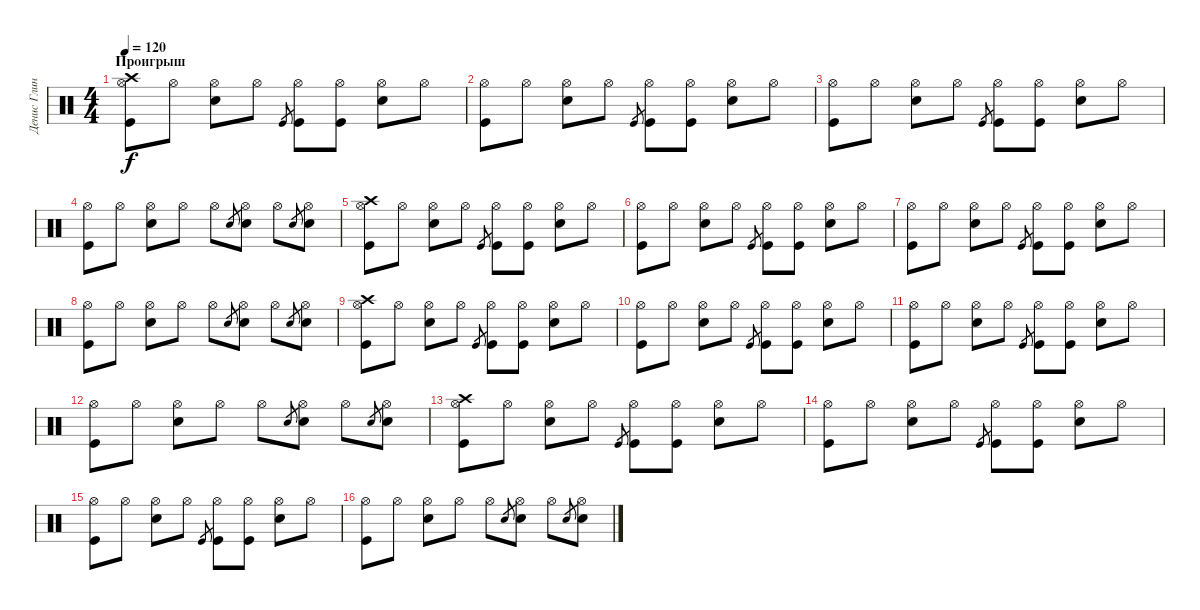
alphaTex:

\track ("Денис Глинин" "Денис Глин") {instrument percussion}
\staff {score}
\articulation defaults
\ts (4 4)
\section ("" "Проигрыш")
\tempo 120
\clef neutral
\ks c
("Hi-Hat (open)" "Crash high (hit)" "Kick (hit)").8{dy f} "Hi-Hat (open)".8 ("Hi-Hat (open)" "Snare (hit) 2").8 "Hi-Hat (open)".8 "Kick (hit)".8{gr} ("Hi-Hat (open)" "Kick (hit)").8 ("Hi-Hat (open)" "Kick (hit)").8 ("Hi-Hat (open)" "Snare (hit) 2").8 "Hi-Hat (open)".8 |
("Hi-Hat (open)" "Kick (hit)").8 "Hi-Hat (open)".8 ("Hi-Hat (open)" "Snare (hit) 2").8 "Hi-Hat (open)".8 "Kick (hit)".8{gr} ("Hi-Hat (open)" "Kick (hit)").8 ("Hi-Hat (open)" "Kick (hit)").8 ("Hi-Hat (open)" "Snare (hit) 2").8 "Hi-Hat (open)".8 |
("Hi-Hat (open)" "Kick (hit)").8 "Hi-Hat (open)".8 ("Hi-Hat (open)" "Snare (hit) 2").8 "Hi-Hat (open)".8 "Kick (hit)".8{gr} ("Hi-Hat (open)" "Kick (hit)").8 ("Hi-Hat (open)" "Kick (hit)").8 ("Hi-Hat (open)" "Snare (hit) 2").8 "Hi-Hat (open)".8 |
("Hi-Hat (open)" "Kick (hit)").8 "Hi-Hat (open)".8 ("Hi-Hat (open)" "Snare (hit) 2").8 "Hi-Hat (open)".8 "Hi-Hat (open)".8 "Snare (hit) 2".8{gr} ("Hi-Hat (open)" "Snare (hit) 2").8 "Hi-Hat (open)".8 "Snare (hit) 2".8{gr} ("Hi-Hat (open)" "Snare (hit) 2").8 |
("Hi-Hat (open)" "Crash high (hit)" "Kick (hit)").8 "Hi-Hat (open)".8 ("Hi-Hat (open)" "Snare (hit) 2").8 "Hi-Hat (open)".8 "Kick (hit)".8{gr} ("Hi-Hat (open)" "Kick (hit)").8 ("Hi-Hat (open)" "Kick (hit)").8 ("Hi-Hat (open)" "Snare (hit) 2").8 "Hi-Hat (open)".8 |
("Hi-Hat (open)" "Kick (hit)").8 "Hi-Hat (open)".8 ("Hi-Hat (open)" "Snare (hit) 2").8 "Hi-Hat (open)".8 "Kick (hit)".8{gr} ("Hi-Hat (open)" "Kick (hit)").8 ("Hi-Hat (open)" "Kick (hit)").8 ("Hi-Hat (open)" "Snare (hit) 2").8 "Hi-Hat (open)".8 |
("Hi-Hat (open)" "Kick (hit)").8 "Hi-Hat (open)".8 ("Hi-Hat (open)" "Snare (hit) 2").8 "Hi-Hat (open)".8 "Kick (hit)".8{gr} ("Hi-Hat (open)" "Kick (hit)").8 ("Hi-Hat (open)" "Kick (hit)").8 ("Hi-Hat (open)" "Snare (hit) 2").8 "Hi-Hat (open)".8 |
("Hi-Hat (open)" "Kick (hit)").8 "Hi-Hat (open)".8 ("Hi-Hat (open)" "Snare (hit) 2").8 "Hi-Hat (open)".8 "Hi-Hat (open)".8 "Snare (hit) 2".8{gr} ("Hi-Hat (open)" "Snare (hit) 2").8 "Hi-Hat (open)".8 "Snare (hit) 2".8{gr} ("Hi-Hat (open)" "Snare (hit) 2").8 |
("Hi-Hat (open)" "Crash high (hit)" "Kick (hit)").8 "Hi-Hat (open)".8 ("Hi-Hat (open)" "Snare (hit) 2").8 "Hi-Hat (open)".8 "Kick (hit)".8{gr} ("Hi-Hat (open)" "Kick (hit)").8 ("Hi-Hat (open)" "Kick (hit)").8 ("Hi-Hat (open)" "Snare (hit) 2").8 "Hi-Hat (open)".8 |
("Hi-Hat (open)" "Kick (hit)").8 "Hi-Hat (open)".8 ("Hi-Hat (open)" "Snare (hit) 2").8 "Hi-Hat (open)".8 "Kick (hit)".8{gr} ("Hi-Hat (open)" "Kick (hit)").8 ("Hi-Hat (open)" "Kick (hit)").8 ("Hi-Hat (open)" "Snare (hit) 2").8 "Hi-Hat (open)".8 |
("Hi-Hat (open)" "Kick (hit)").8 "Hi-Hat (open)".8 ("Hi-Hat (open)" "Snare (hit) 2").8 "Hi-Hat (open)".8 "Kick (hit)".8{gr} ("Hi-Hat (open)" "Kick (hit)").8 ("Hi-Hat (open)" "Kick (hit)").8 ("Hi-Hat (open)" "Snare (hit) 2").8 "Hi-Hat (open)".8 |
("Hi-Hat (open)" "Kick (hit)").8 "Hi-Hat (open)".8 ("Hi-Hat (open)" "Snare (hit) 2").8 "Hi-Hat (open)".8 "Hi-Hat (open)".8 "Snare (hit) 2".8{gr} ("Hi-Hat (open)" "Snare (hit) 2").8 "Hi-Hat (open)".8 "Snare (hit) 2".8{gr} ("Hi-Hat (open)" "Snare (hit) 2").8 |
("Hi-Hat (open)" "Crash high (hit)" "Kick (hit)").8 "Hi-Hat (open)".8 ("Hi-Hat (open)" "Snare (hit) 2").8 "Hi-Hat (open)".8 "Kick (hit)".8{gr} ("Hi-Hat (open)" "Kick (hit)").8 ("Hi-Hat (open)" "Kick (hit)").8 ("Hi-Hat (open)" "Snare (hit) 2").8 "Hi-Hat (open)".8 |
("Hi-Hat (open)" "Kick (hit)").8 "Hi-Hat (open)".8 ("Hi-Hat (open)" "Snare (hit) 2").8 "Hi-Hat (open)".8 "Kick (hit)".8{gr} ("Hi-Hat (open)" "Kick (hit)").8 ("Hi-Hat (open)" "Kick (hit)").8 ("Hi-Hat (open)" "Snare (hit) 2").8 "Hi-Hat (open)".8 |
("Hi-Hat (open)" "Kick (hit)").8 "Hi-Hat (open)".8 ("Hi-Hat (open)" "Snare (hit) 2").8 "Hi-Hat (open)".8 "Kick (hit)".8{gr} ("Hi-Hat (open)" "Kick (hit)").8 ("Hi-Hat (open)" "Kick (hit)").8 ("Hi-Hat (open)" "Snare (hit) 2").8 "Hi-Hat (open)".8 |
("Hi-Hat (open)" "Kick (hit)").8 "Hi-Hat (open)".8 ("Hi-Hat (open)" "Snare (hit) 2").8 "Hi-Hat (open)".8 "Hi-Hat (open)".8 "Snare (hit) 2".8{gr} ("Hi-Hat (open)" "Snare (hit) 2").8 "Hi-Hat (open)".8 "Snare (hit) 2".8{gr} ("Hi-Hat (open)" "Snare (hit) 2").8
